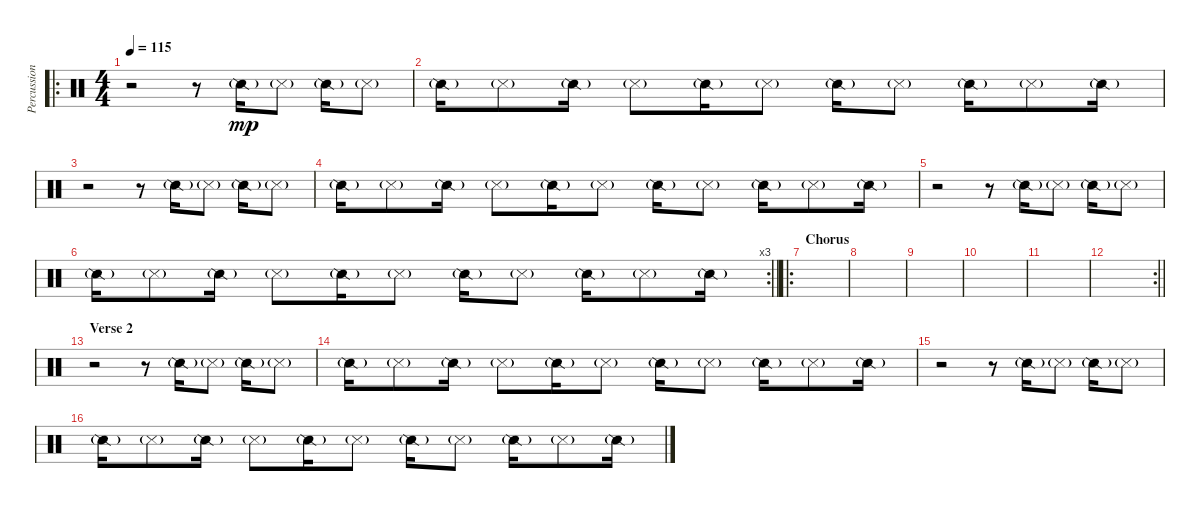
\track ("Percussion FX" "Percussion") {instrument percussion}
\staff {score}
\articulation defaults
\ro
\ts (4 4)
\tempo 115
\clef neutral
\ks c
r.2{dy mp} r.8 "Snare (side stick) 2"{g}.16 "Snare (side stick) 3"{g}.8 "Snare (side stick) 2"{g}.16 "Snare (side stick) 3"{g}.8 |
"Snare (side stick) 2"{g}.16 "Snare (side stick) 3"{g}.8 "Snare (side stick) 2"{g}.16 "Snare (side stick) 3"{g}.8 "Snare (side stick) 2"{g}.16 "Snare (side stick) 3"{g}.8 "Snare (side stick) 2"{g}.16 "Snare (side stick) 3"{g}.8 "Snare (side stick) 2"{g}.16 "Snare (side stick) 3"{g}.8 "Snare (side stick) 2"{g}.16 |
r.2 r.8 "Snare (side stick) 2"{g}.16 "Snare (side stick) 3"{g}.8 "Snare (side stick) 2"{g}.16 "Snare (side stick) 3"{g}.8 |
"Snare (side stick) 2"{g}.16 "Snare (side stick) 3"{g}.8 "Snare (side stick) 2"{g}.16 "Snare (side stick) 3"{g}.8 "Snare (side stick) 2"{g}.16 "Snare (side stick) 3"{g}.8 "Snare (side stick) 2"{g}.16 "Snare (side stick) 3"{g}.8 "Snare (side stick) 2"{g}.16 "Snare (side stick) 3"{g}.8 "Snare (side stick) 2"{g}.16 |
r.2 r.8 "Snare (side stick) 2"{g}.16 "Snare (side stick) 3"{g}.8 "Snare (side stick) 2"{g}.16 "Snare (side stick) 3"{g}.8 |
\rc 3
\barLineRight lightlight "Snare (side stick) 2"{g}.16 "Snare (side stick) 3"{g}.8 "Snare (side stick) 2"{g}.16 "Snare (side stick) 3"{g}.8 "Snare (side stick) 2"{g}.16 "Snare (side stick) 3"{g}.8 "Snare (side stick) 2"{g}.16 "Snare (side stick) 3"{g}.8 "Snare (side stick) 2"{g}.16 "Snare (side stick) 3"{g}.8 "Snare (side stick) 2"{g}.16
|
\ro
\section ("" "Chorus")
|
|
|
|
|
\rc 2
\barLineRight lightlight
|
\section ("" "Verse 2")
r.2 r.8 "Snare (side stick) 2"{g}.16 "Snare (side stick) 3"{g}.8 "Snare (side stick) 2"{g}.16 "Snare (side stick) 3"{g}.8 |
"Snare (side stick) 2"{g}.16 "Snare (side stick) 3"{g}.8 "Snare (side stick) 2"{g}.16 "Snare (side stick) 3"{g}.8 "Snare (side stick) 2"{g}.16 "Snare (side stick) 3"{g}.8 "Snare (side stick) 2"{g}.16 "Snare (side stick) 3"{g}.8 "Snare (side stick) 2"{g}.16 "Snare (side stick) 3"{g}.8 "Snare (side stick) 2"{g}.16 |
r.2 r.8 "Snare (side stick) 2"{g}.16 "Snare (side stick) 3"{g}.8 "Snare (side stick) 2"{g}.16 "Snare (side stick) 3"{g}.8 |
"Snare (side stick) 2"{g}.16 "Snare (side stick) 3"{g}.8 "Snare (side stick) 2"{g}.16 "Snare (side stick) 3"{g}.8 "Snare (side stick) 2"{g}.16 "Snare (side stick) 3"{g}.8 "Snare (side stick) 2"{g}.16 "Snare (side stick) 3"{g}.8 "Snare (side stick) 2"{g}.16 "Snare (side stick) 3"{g}.8 "Snare (side stick) 2"{g}.16
